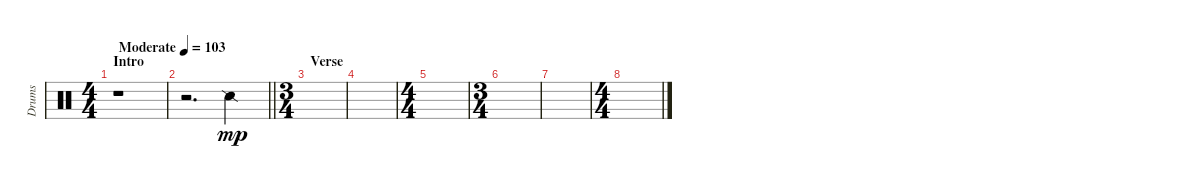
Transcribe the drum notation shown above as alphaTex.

\track ("Drums" "Drums") {instrument percussion}
\staff {score}
\articulation defaults
\ts (4 4)
\section ("" "Intro")
\tempo (103 "Moderate")
\clef neutral
\ks c
r.1{dy mp} |
\barLineRight lightlight
r.2{d} "Snare (side stick) 2".4 |
\ts (3 4)
\section ("" "Verse")
|
|
\ts (4 4)
|
\ts (3 4)
|
|
\ts (4 4)
